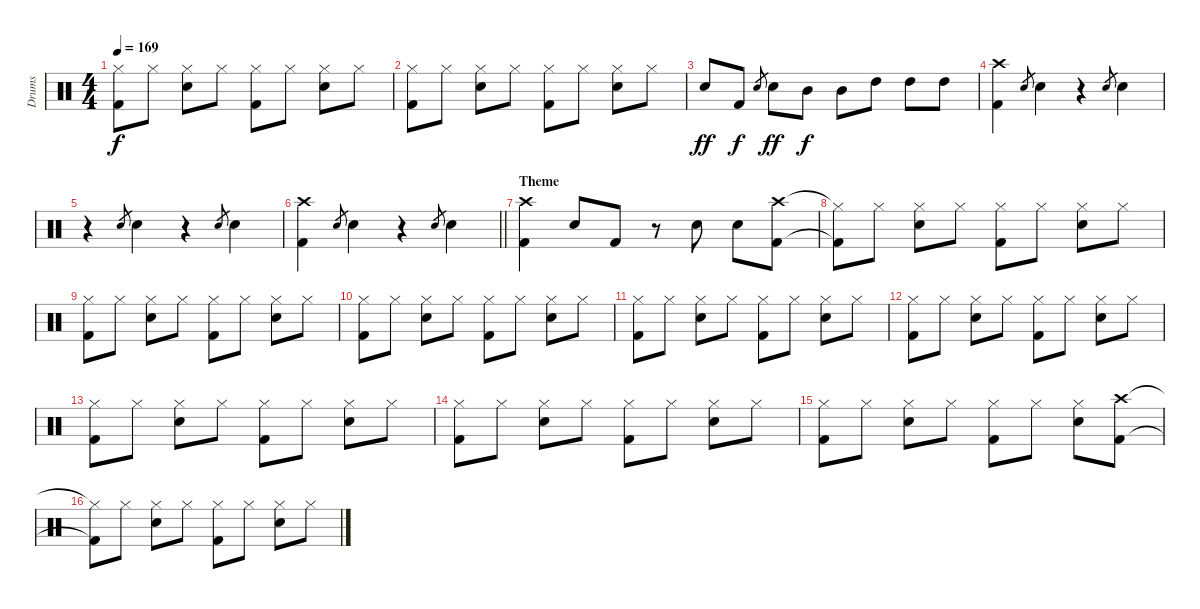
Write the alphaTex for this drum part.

\track ("Drums" "Drums") {instrument percussion}
\staff {score}
\articulation defaults
\ts (4 4)
\tempo 169
\clef neutral
\ks c
("Hi-Hat (closed)" "Kick (hit) 2").8{dy f} "Hi-Hat (closed)".8 ("Hi-Hat (closed)" "Snare (hit) 2").8 "Hi-Hat (closed)".8 ("Hi-Hat (closed)" "Kick (hit) 2").8 "Hi-Hat (closed)".8 ("Hi-Hat (closed)" "Snare (hit) 2").8 "Hi-Hat (closed)".8 |
("Hi-Hat (closed)" "Kick (hit) 2").8 "Hi-Hat (closed)".8 ("Hi-Hat (closed)" "Snare (hit) 2").8 "Hi-Hat (closed)".8 ("Hi-Hat (closed)" "Kick (hit) 2").8 "Hi-Hat (closed)".8 ("Hi-Hat (closed)" "Snare (hit) 2").8 "Hi-Hat (closed)".8 |
"Snare (hit) 2".8{dy ff} "Kick (hit) 2".8{dy f} "Snare (hit) 2".8{gr} "Snare (hit) 2".8{dy ff} "Mid Tom (hit)".8{dy f} "Mid Tom (hit)".8 "High Tom (hit)".8 "High Tom (hit)".8 "High Tom (hit)".8 |
("Crash high (hit)" "Kick (hit) 2").4 "Snare (hit) 2".8{gr} "Snare (hit) 2".4 r.4 "Snare (hit) 2".8{gr} "Snare (hit) 2".4 |
r.4 "Snare (hit) 2".8{gr} "Snare (hit) 2".4 r.4 "Snare (hit) 2".8{gr} "Snare (hit) 2".4 |
\barLineRight lightlight
("Crash high (hit)" "Kick (hit) 2").4 "Snare (hit) 2".8{gr} "Snare (hit) 2".4 r.4 "Snare (hit) 2".8{gr} "Snare (hit) 2".4 |
\section ("" "Theme")
("Crash high (hit)" "Kick (hit) 2").4 "Snare (hit) 2".8 "Kick (hit) 2".8 r.8 "Snare (hit) 2".8 "Snare (hit) 2".8 ("Crash high (hit)" "Kick (hit) 2").8 |
("Hi-Hat (closed)"{t} "Kick (hit) 2"{t}).8 "Hi-Hat (closed)".8 ("Hi-Hat (closed)" "Snare (hit) 2").8 "Hi-Hat (closed)".8 ("Hi-Hat (closed)" "Kick (hit) 2").8 "Hi-Hat (closed)".8 ("Hi-Hat (closed)" "Snare (hit) 2").8 "Hi-Hat (closed)".8 |
("Hi-Hat (closed)" "Kick (hit) 2").8 "Hi-Hat (closed)".8 ("Hi-Hat (closed)" "Snare (hit) 2").8 "Hi-Hat (closed)".8 ("Hi-Hat (closed)" "Kick (hit) 2").8 "Hi-Hat (closed)".8 ("Hi-Hat (closed)" "Snare (hit) 2").8 "Hi-Hat (closed)".8 |
("Hi-Hat (closed)" "Kick (hit) 2").8 "Hi-Hat (closed)".8 ("Hi-Hat (closed)" "Snare (hit) 2").8 "Hi-Hat (closed)".8 ("Hi-Hat (closed)" "Kick (hit) 2").8 "Hi-Hat (closed)".8 ("Hi-Hat (closed)" "Snare (hit) 2").8 "Hi-Hat (closed)".8 |
("Hi-Hat (closed)" "Kick (hit) 2").8 "Hi-Hat (closed)".8 ("Hi-Hat (closed)" "Snare (hit) 2").8 "Hi-Hat (closed)".8 ("Hi-Hat (closed)" "Kick (hit) 2").8 "Hi-Hat (closed)".8 ("Hi-Hat (closed)" "Snare (hit) 2").8 "Hi-Hat (closed)".8 |
("Hi-Hat (closed)" "Kick (hit) 2").8 "Hi-Hat (closed)".8 ("Hi-Hat (closed)" "Snare (hit) 2").8 "Hi-Hat (closed)".8 ("Hi-Hat (closed)" "Kick (hit) 2").8 "Hi-Hat (closed)".8 ("Hi-Hat (closed)" "Snare (hit) 2").8 "Hi-Hat (closed)".8 |
("Hi-Hat (closed)" "Kick (hit) 2").8 "Hi-Hat (closed)".8 ("Hi-Hat (closed)" "Snare (hit) 2").8 "Hi-Hat (closed)".8 ("Hi-Hat (closed)" "Kick (hit) 2").8 "Hi-Hat (closed)".8 ("Hi-Hat (closed)" "Snare (hit) 2").8 "Hi-Hat (closed)".8 |
("Hi-Hat (closed)" "Kick (hit) 2").8 "Hi-Hat (closed)".8 ("Hi-Hat (closed)" "Snare (hit) 2").8 "Hi-Hat (closed)".8 ("Hi-Hat (closed)" "Kick (hit) 2").8 "Hi-Hat (closed)".8 ("Hi-Hat (closed)" "Snare (hit) 2").8 "Hi-Hat (closed)".8 |
("Hi-Hat (closed)" "Kick (hit) 2").8 "Hi-Hat (closed)".8 ("Hi-Hat (closed)" "Snare (hit) 2").8 "Hi-Hat (closed)".8 ("Hi-Hat (closed)" "Kick (hit) 2").8 "Hi-Hat (closed)".8 ("Hi-Hat (closed)" "Snare (hit) 2").8 ("Crash high (hit)" "Kick (hit) 2").8 |
("Hi-Hat (closed)"{t} "Kick (hit) 2"{t}).8 "Hi-Hat (closed)".8 ("Hi-Hat (closed)" "Snare (hit) 2").8 "Hi-Hat (closed)".8 ("Hi-Hat (closed)" "Kick (hit) 2").8 "Hi-Hat (closed)".8 ("Hi-Hat (closed)" "Snare (hit) 2").8 "Hi-Hat (closed)".8
